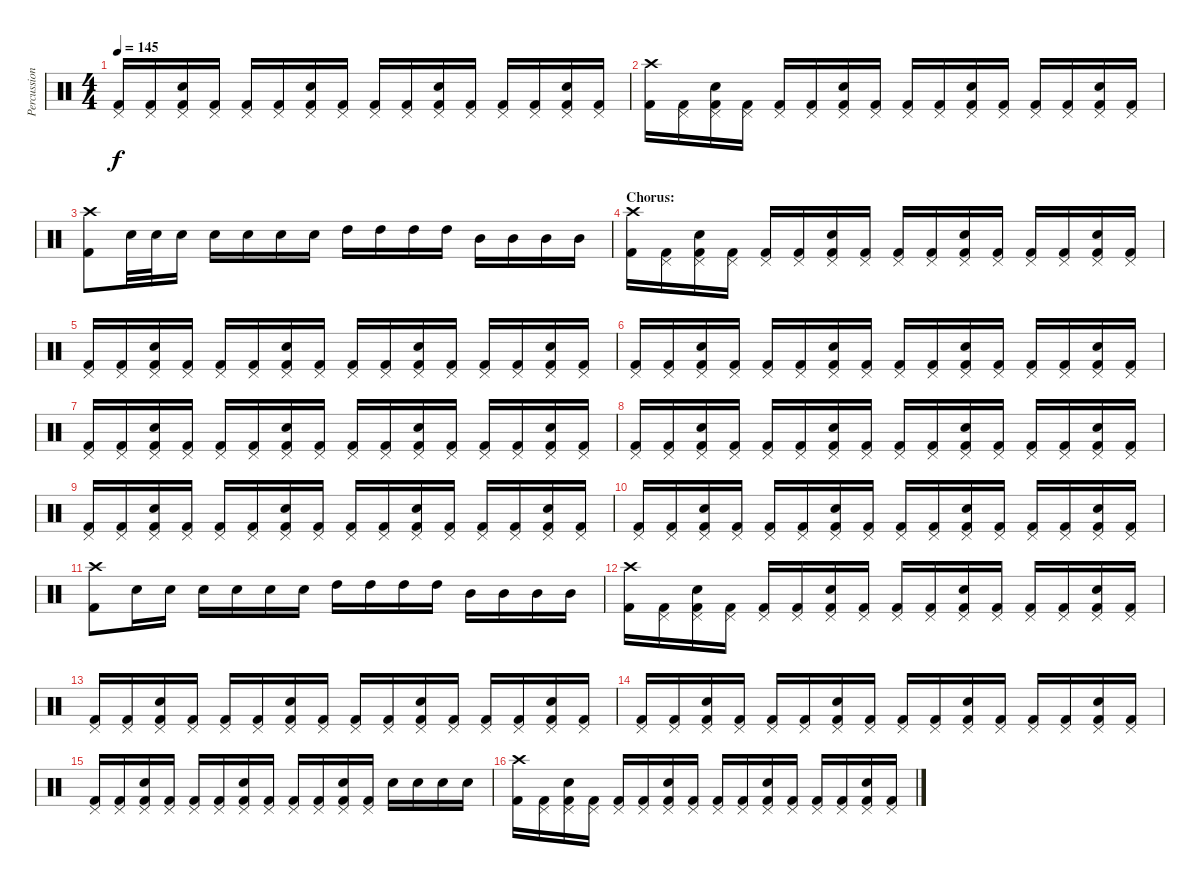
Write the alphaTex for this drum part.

\track ("Percussion" "Percussion") {instrument percussion}
\staff {score}
\articulation defaults
\ts (4 4)
\tempo 145
\clef neutral
\ks c
("Pedal Hi-Hat (hit)" "Kick (hit) 2").16{dy f} ("Pedal Hi-Hat (hit)" "Kick (hit) 2").16 ("Pedal Hi-Hat (hit)" "Snare (hit) 2" "Kick (hit) 2").16 ("Pedal Hi-Hat (hit)" "Kick (hit) 2").16 ("Pedal Hi-Hat (hit)" "Kick (hit) 2").16 ("Pedal Hi-Hat (hit)" "Kick (hit) 2").16 ("Pedal Hi-Hat (hit)" "Snare (hit) 2" "Kick (hit) 2").16 ("Pedal Hi-Hat (hit)" "Kick (hit) 2").16 ("Pedal Hi-Hat (hit)" "Kick (hit) 2").16 ("Pedal Hi-Hat (hit)" "Kick (hit) 2").16 ("Pedal Hi-Hat (hit)" "Snare (hit) 2" "Kick (hit) 2").16 ("Pedal Hi-Hat (hit)" "Kick (hit) 2").16 ("Pedal Hi-Hat (hit)" "Kick (hit) 2").16 ("Pedal Hi-Hat (hit)" "Kick (hit) 2").16 ("Pedal Hi-Hat (hit)" "Snare (hit) 2" "Kick (hit) 2").16 ("Pedal Hi-Hat (hit)" "Kick (hit) 2").16 |
("Crash high (hit)" "Kick (hit) 2").16 ("Pedal Hi-Hat (hit)" "Kick (hit) 2").16 ("Pedal Hi-Hat (hit)" "Snare (hit) 2" "Kick (hit) 2").16 ("Pedal Hi-Hat (hit)" "Kick (hit) 2").16 ("Pedal Hi-Hat (hit)" "Kick (hit) 2").16 ("Pedal Hi-Hat (hit)" "Kick (hit) 2").16 ("Pedal Hi-Hat (hit)" "Snare (hit) 2" "Kick (hit) 2").16 ("Pedal Hi-Hat (hit)" "Kick (hit) 2").16 ("Pedal Hi-Hat (hit)" "Kick (hit) 2").16 ("Pedal Hi-Hat (hit)" "Kick (hit) 2").16 ("Pedal Hi-Hat (hit)" "Snare (hit) 2" "Kick (hit) 2").16 ("Pedal Hi-Hat (hit)" "Kick (hit) 2").16 ("Pedal Hi-Hat (hit)" "Kick (hit) 2").16 ("Pedal Hi-Hat (hit)" "Kick (hit) 2").16 ("Pedal Hi-Hat (hit)" "Snare (hit) 2" "Kick (hit) 2").16 ("Pedal Hi-Hat (hit)" "Kick (hit) 2").16 |
("Crash high (hit)" "Kick (hit) 2").8 "Snare (hit) 2".32 "Snare (hit) 2".32 "Snare (hit) 2".16 "Snare (hit) 2".16 "Snare (hit) 2".16 "Snare (hit) 2".16 "Snare (hit) 2".16 "High Tom (hit)".16 "High Tom (hit)".16 "High Tom (hit)".16 "High Tom (hit)".16 "Mid Tom (hit)".16 "Mid Tom (hit)".16 "Mid Tom (hit)".16 "Mid Tom (hit)".16 |
\section ("" "Chorus:")
("Crash high (hit)" "Kick (hit) 2").16 ("Pedal Hi-Hat (hit)" "Kick (hit) 2").16 ("Pedal Hi-Hat (hit)" "Snare (hit) 2" "Kick (hit) 2").16 ("Pedal Hi-Hat (hit)" "Kick (hit) 2").16 ("Pedal Hi-Hat (hit)" "Kick (hit) 2").16 ("Pedal Hi-Hat (hit)" "Kick (hit) 2").16 ("Pedal Hi-Hat (hit)" "Snare (hit) 2" "Kick (hit) 2").16 ("Pedal Hi-Hat (hit)" "Kick (hit) 2").16 ("Pedal Hi-Hat (hit)" "Kick (hit) 2").16 ("Pedal Hi-Hat (hit)" "Kick (hit) 2").16 ("Pedal Hi-Hat (hit)" "Snare (hit) 2" "Kick (hit) 2").16 ("Pedal Hi-Hat (hit)" "Kick (hit) 2").16 ("Pedal Hi-Hat (hit)" "Kick (hit) 2").16 ("Pedal Hi-Hat (hit)" "Kick (hit) 2").16 ("Pedal Hi-Hat (hit)" "Snare (hit) 2" "Kick (hit) 2").16 ("Pedal Hi-Hat (hit)" "Kick (hit) 2").16 |
("Pedal Hi-Hat (hit)" "Kick (hit) 2").16 ("Pedal Hi-Hat (hit)" "Kick (hit) 2").16 ("Pedal Hi-Hat (hit)" "Snare (hit) 2" "Kick (hit) 2").16 ("Pedal Hi-Hat (hit)" "Kick (hit) 2").16 ("Pedal Hi-Hat (hit)" "Kick (hit) 2").16 ("Pedal Hi-Hat (hit)" "Kick (hit) 2").16 ("Pedal Hi-Hat (hit)" "Snare (hit) 2" "Kick (hit) 2").16 ("Pedal Hi-Hat (hit)" "Kick (hit) 2").16 ("Pedal Hi-Hat (hit)" "Kick (hit) 2").16 ("Pedal Hi-Hat (hit)" "Kick (hit) 2").16 ("Pedal Hi-Hat (hit)" "Snare (hit) 2" "Kick (hit) 2").16 ("Pedal Hi-Hat (hit)" "Kick (hit) 2").16 ("Pedal Hi-Hat (hit)" "Kick (hit) 2").16 ("Pedal Hi-Hat (hit)" "Kick (hit) 2").16 ("Pedal Hi-Hat (hit)" "Snare (hit) 2" "Kick (hit) 2").16 ("Pedal Hi-Hat (hit)" "Kick (hit) 2").16 |
("Pedal Hi-Hat (hit)" "Kick (hit) 2").16 ("Pedal Hi-Hat (hit)" "Kick (hit) 2").16 ("Pedal Hi-Hat (hit)" "Snare (hit) 2" "Kick (hit) 2").16 ("Pedal Hi-Hat (hit)" "Kick (hit) 2").16 ("Pedal Hi-Hat (hit)" "Kick (hit) 2").16 ("Pedal Hi-Hat (hit)" "Kick (hit) 2").16 ("Pedal Hi-Hat (hit)" "Snare (hit) 2" "Kick (hit) 2").16 ("Pedal Hi-Hat (hit)" "Kick (hit) 2").16 ("Pedal Hi-Hat (hit)" "Kick (hit) 2").16 ("Pedal Hi-Hat (hit)" "Kick (hit) 2").16 ("Pedal Hi-Hat (hit)" "Snare (hit) 2" "Kick (hit) 2").16 ("Pedal Hi-Hat (hit)" "Kick (hit) 2").16 ("Pedal Hi-Hat (hit)" "Kick (hit) 2").16 ("Pedal Hi-Hat (hit)" "Kick (hit) 2").16 ("Pedal Hi-Hat (hit)" "Snare (hit) 2" "Kick (hit) 2").16 ("Pedal Hi-Hat (hit)" "Kick (hit) 2").16 |
("Pedal Hi-Hat (hit)" "Kick (hit) 2").16 ("Pedal Hi-Hat (hit)" "Kick (hit) 2").16 ("Pedal Hi-Hat (hit)" "Snare (hit) 2" "Kick (hit) 2").16 ("Pedal Hi-Hat (hit)" "Kick (hit) 2").16 ("Pedal Hi-Hat (hit)" "Kick (hit) 2").16 ("Pedal Hi-Hat (hit)" "Kick (hit) 2").16 ("Pedal Hi-Hat (hit)" "Snare (hit) 2" "Kick (hit) 2").16 ("Pedal Hi-Hat (hit)" "Kick (hit) 2").16 ("Pedal Hi-Hat (hit)" "Kick (hit) 2").16 ("Pedal Hi-Hat (hit)" "Kick (hit) 2").16 ("Pedal Hi-Hat (hit)" "Snare (hit) 2" "Kick (hit) 2").16 ("Pedal Hi-Hat (hit)" "Kick (hit) 2").16 ("Pedal Hi-Hat (hit)" "Kick (hit) 2").16 ("Pedal Hi-Hat (hit)" "Kick (hit) 2").16 ("Pedal Hi-Hat (hit)" "Snare (hit) 2" "Kick (hit) 2").16 ("Pedal Hi-Hat (hit)" "Kick (hit) 2").16 |
("Pedal Hi-Hat (hit)" "Kick (hit) 2").16 ("Pedal Hi-Hat (hit)" "Kick (hit) 2").16 ("Pedal Hi-Hat (hit)" "Snare (hit) 2" "Kick (hit) 2").16 ("Pedal Hi-Hat (hit)" "Kick (hit) 2").16 ("Pedal Hi-Hat (hit)" "Kick (hit) 2").16 ("Pedal Hi-Hat (hit)" "Kick (hit) 2").16 ("Pedal Hi-Hat (hit)" "Snare (hit) 2" "Kick (hit) 2").16 ("Pedal Hi-Hat (hit)" "Kick (hit) 2").16 ("Pedal Hi-Hat (hit)" "Kick (hit) 2").16 ("Pedal Hi-Hat (hit)" "Kick (hit) 2").16 ("Pedal Hi-Hat (hit)" "Snare (hit) 2" "Kick (hit) 2").16 ("Pedal Hi-Hat (hit)" "Kick (hit) 2").16 ("Pedal Hi-Hat (hit)" "Kick (hit) 2").16 ("Pedal Hi-Hat (hit)" "Kick (hit) 2").16 ("Pedal Hi-Hat (hit)" "Snare (hit) 2" "Kick (hit) 2").16 ("Pedal Hi-Hat (hit)" "Kick (hit) 2").16 |
("Pedal Hi-Hat (hit)" "Kick (hit) 2").16 ("Pedal Hi-Hat (hit)" "Kick (hit) 2").16 ("Pedal Hi-Hat (hit)" "Snare (hit) 2" "Kick (hit) 2").16 ("Pedal Hi-Hat (hit)" "Kick (hit) 2").16 ("Pedal Hi-Hat (hit)" "Kick (hit) 2").16 ("Pedal Hi-Hat (hit)" "Kick (hit) 2").16 ("Pedal Hi-Hat (hit)" "Snare (hit) 2" "Kick (hit) 2").16 ("Pedal Hi-Hat (hit)" "Kick (hit) 2").16 ("Pedal Hi-Hat (hit)" "Kick (hit) 2").16 ("Pedal Hi-Hat (hit)" "Kick (hit) 2").16 ("Pedal Hi-Hat (hit)" "Snare (hit) 2" "Kick (hit) 2").16 ("Pedal Hi-Hat (hit)" "Kick (hit) 2").16 ("Pedal Hi-Hat (hit)" "Kick (hit) 2").16 ("Pedal Hi-Hat (hit)" "Kick (hit) 2").16 ("Pedal Hi-Hat (hit)" "Snare (hit) 2" "Kick (hit) 2").16 ("Pedal Hi-Hat (hit)" "Kick (hit) 2").16 |
("Pedal Hi-Hat (hit)" "Kick (hit) 2").16 ("Pedal Hi-Hat (hit)" "Kick (hit) 2").16 ("Pedal Hi-Hat (hit)" "Snare (hit) 2" "Kick (hit) 2").16 ("Pedal Hi-Hat (hit)" "Kick (hit) 2").16 ("Pedal Hi-Hat (hit)" "Kick (hit) 2").16 ("Pedal Hi-Hat (hit)" "Kick (hit) 2").16 ("Pedal Hi-Hat (hit)" "Snare (hit) 2" "Kick (hit) 2").16 ("Pedal Hi-Hat (hit)" "Kick (hit) 2").16 ("Pedal Hi-Hat (hit)" "Kick (hit) 2").16 ("Pedal Hi-Hat (hit)" "Kick (hit) 2").16 ("Pedal Hi-Hat (hit)" "Snare (hit) 2" "Kick (hit) 2").16 ("Pedal Hi-Hat (hit)" "Kick (hit) 2").16 ("Pedal Hi-Hat (hit)" "Kick (hit) 2").16 ("Pedal Hi-Hat (hit)" "Kick (hit) 2").16 ("Pedal Hi-Hat (hit)" "Snare (hit) 2" "Kick (hit) 2").16 ("Pedal Hi-Hat (hit)" "Kick (hit) 2").16 |
("Crash high (hit)" "Kick (hit) 2").8 "Snare (hit) 2".16 "Snare (hit) 2".16 "Snare (hit) 2".16 "Snare (hit) 2".16 "Snare (hit) 2".16 "Snare (hit) 2".16 "High Tom (hit)".16 "High Tom (hit)".16 "High Tom (hit)".16 "High Tom (hit)".16 "Mid Tom (hit)".16 "Mid Tom (hit)".16 "Mid Tom (hit)".16 "Mid Tom (hit)".16 |
("Crash high (hit)" "Kick (hit) 2").16 ("Pedal Hi-Hat (hit)" "Kick (hit) 2").16 ("Pedal Hi-Hat (hit)" "Snare (hit) 2" "Kick (hit) 2").16 ("Pedal Hi-Hat (hit)" "Kick (hit) 2").16 ("Pedal Hi-Hat (hit)" "Kick (hit) 2").16 ("Pedal Hi-Hat (hit)" "Kick (hit) 2").16 ("Pedal Hi-Hat (hit)" "Snare (hit) 2" "Kick (hit) 2").16 ("Pedal Hi-Hat (hit)" "Kick (hit) 2").16 ("Pedal Hi-Hat (hit)" "Kick (hit) 2").16 ("Pedal Hi-Hat (hit)" "Kick (hit) 2").16 ("Pedal Hi-Hat (hit)" "Snare (hit) 2" "Kick (hit) 2").16 ("Pedal Hi-Hat (hit)" "Kick (hit) 2").16 ("Pedal Hi-Hat (hit)" "Kick (hit) 2").16 ("Pedal Hi-Hat (hit)" "Kick (hit) 2").16 ("Pedal Hi-Hat (hit)" "Snare (hit) 2" "Kick (hit) 2").16 ("Pedal Hi-Hat (hit)" "Kick (hit) 2").16 |
("Pedal Hi-Hat (hit)" "Kick (hit) 2").16 ("Pedal Hi-Hat (hit)" "Kick (hit) 2").16 ("Pedal Hi-Hat (hit)" "Snare (hit) 2" "Kick (hit) 2").16 ("Pedal Hi-Hat (hit)" "Kick (hit) 2").16 ("Pedal Hi-Hat (hit)" "Kick (hit) 2").16 ("Pedal Hi-Hat (hit)" "Kick (hit) 2").16 ("Pedal Hi-Hat (hit)" "Snare (hit) 2" "Kick (hit) 2").16 ("Pedal Hi-Hat (hit)" "Kick (hit) 2").16 ("Pedal Hi-Hat (hit)" "Kick (hit) 2").16 ("Pedal Hi-Hat (hit)" "Kick (hit) 2").16 ("Pedal Hi-Hat (hit)" "Snare (hit) 2" "Kick (hit) 2").16 ("Pedal Hi-Hat (hit)" "Kick (hit) 2").16 ("Pedal Hi-Hat (hit)" "Kick (hit) 2").16 ("Pedal Hi-Hat (hit)" "Kick (hit) 2").16 ("Pedal Hi-Hat (hit)" "Snare (hit) 2" "Kick (hit) 2").16 ("Pedal Hi-Hat (hit)" "Kick (hit) 2").16 |
("Pedal Hi-Hat (hit)" "Kick (hit) 2").16 ("Pedal Hi-Hat (hit)" "Kick (hit) 2").16 ("Pedal Hi-Hat (hit)" "Snare (hit) 2" "Kick (hit) 2").16 ("Pedal Hi-Hat (hit)" "Kick (hit) 2").16 ("Pedal Hi-Hat (hit)" "Kick (hit) 2").16 ("Pedal Hi-Hat (hit)" "Kick (hit) 2").16 ("Pedal Hi-Hat (hit)" "Snare (hit) 2" "Kick (hit) 2").16 ("Pedal Hi-Hat (hit)" "Kick (hit) 2").16 ("Pedal Hi-Hat (hit)" "Kick (hit) 2").16 ("Pedal Hi-Hat (hit)" "Kick (hit) 2").16 ("Pedal Hi-Hat (hit)" "Snare (hit) 2" "Kick (hit) 2").16 ("Pedal Hi-Hat (hit)" "Kick (hit) 2").16 ("Pedal Hi-Hat (hit)" "Kick (hit) 2").16 ("Pedal Hi-Hat (hit)" "Kick (hit) 2").16 ("Pedal Hi-Hat (hit)" "Snare (hit) 2" "Kick (hit) 2").16 ("Pedal Hi-Hat (hit)" "Kick (hit) 2").16 |
("Pedal Hi-Hat (hit)" "Kick (hit) 2").16 ("Pedal Hi-Hat (hit)" "Kick (hit) 2").16 ("Pedal Hi-Hat (hit)" "Snare (hit) 2" "Kick (hit) 2").16 ("Pedal Hi-Hat (hit)" "Kick (hit) 2").16 ("Pedal Hi-Hat (hit)" "Kick (hit) 2").16 ("Pedal Hi-Hat (hit)" "Kick (hit) 2").16 ("Pedal Hi-Hat (hit)" "Snare (hit) 2" "Kick (hit) 2").16 ("Pedal Hi-Hat (hit)" "Kick (hit) 2").16 ("Pedal Hi-Hat (hit)" "Kick (hit) 2").16 ("Pedal Hi-Hat (hit)" "Kick (hit) 2").16 ("Pedal Hi-Hat (hit)" "Snare (hit) 2" "Kick (hit) 2").16 ("Pedal Hi-Hat (hit)" "Kick (hit) 2").16 "Snare (hit) 2".16 "Snare (hit) 2".16 "Snare (hit) 2".16 "Snare (hit) 2".16 |
("Crash high (hit)" "Kick (hit) 2").16 ("Pedal Hi-Hat (hit)" "Kick (hit) 2").16 ("Pedal Hi-Hat (hit)" "Snare (hit) 2" "Kick (hit) 2").16 ("Pedal Hi-Hat (hit)" "Kick (hit) 2").16 ("Pedal Hi-Hat (hit)" "Kick (hit) 2").16 ("Pedal Hi-Hat (hit)" "Kick (hit) 2").16 ("Pedal Hi-Hat (hit)" "Snare (hit) 2" "Kick (hit) 2").16 ("Pedal Hi-Hat (hit)" "Kick (hit) 2").16 ("Pedal Hi-Hat (hit)" "Kick (hit) 2").16 ("Pedal Hi-Hat (hit)" "Kick (hit) 2").16 ("Pedal Hi-Hat (hit)" "Snare (hit) 2" "Kick (hit) 2").16 ("Pedal Hi-Hat (hit)" "Kick (hit) 2").16 ("Pedal Hi-Hat (hit)" "Kick (hit) 2").16 ("Pedal Hi-Hat (hit)" "Kick (hit) 2").16 ("Pedal Hi-Hat (hit)" "Snare (hit) 2" "Kick (hit) 2").16 ("Pedal Hi-Hat (hit)" "Kick (hit) 2").16
